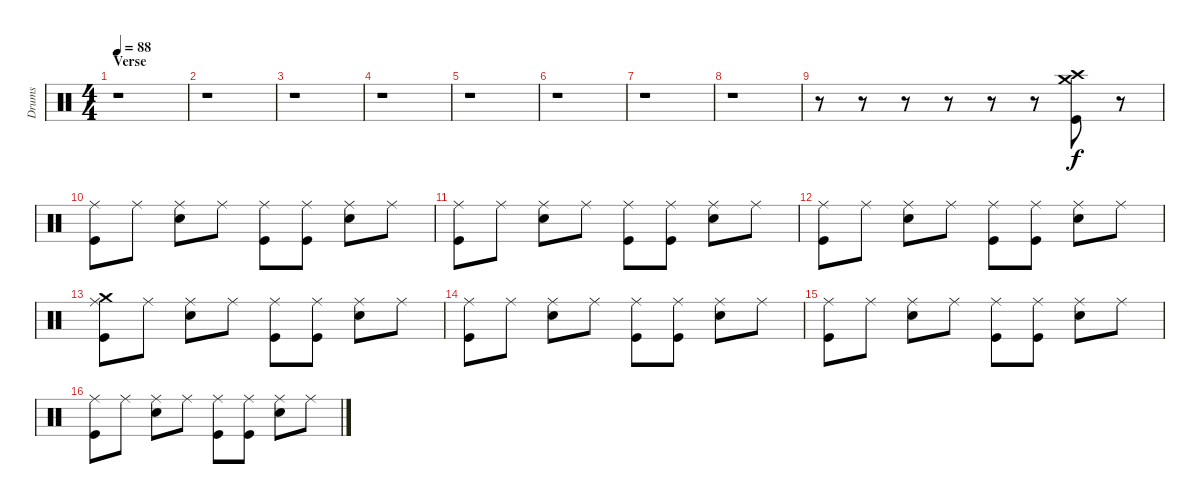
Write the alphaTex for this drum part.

\track ("Drums" "Drums") {instrument percussion}
\staff {score}
\articulation defaults
\ts (4 4)
\section ("" "Verse")
\tempo 88
\clef neutral
\ks c
r.1{dy f} |
r.1 |
r.1 |
r.1 |
r.1 |
r.1 |
r.1 |
r.1 |
r.8 r.8 r.8 r.8 r.8 r.8 ("Crash high (hit)" "Crash medium (hit)" "Kick (hit)").8 r.8 |
("Ride (middle)" "Kick (hit)").8 "Ride (middle)".8 ("Ride (middle)" "Electric Snare (hit)").8 "Ride (middle)".8 ("Ride (middle)" "Kick (hit)").8 ("Ride (middle)" "Kick (hit)").8 ("Ride (middle)" "Electric Snare (hit)").8 "Ride (middle)".8 |
("Ride (middle)" "Kick (hit)").8 "Ride (middle)".8 ("Ride (middle)" "Electric Snare (hit)").8 "Ride (middle)".8 ("Ride (middle)" "Kick (hit)").8 ("Ride (middle)" "Kick (hit)").8 ("Ride (middle)" "Electric Snare (hit)").8 "Ride (middle)".8 |
("Ride (middle)" "Kick (hit)").8 "Ride (middle)".8 ("Ride (middle)" "Electric Snare (hit)").8 "Ride (middle)".8 ("Ride (middle)" "Kick (hit)").8 ("Ride (middle)" "Kick (hit)").8 ("Ride (middle)" "Electric Snare (hit)").8 "Ride (middle)".8 |
("Crash medium (hit)" "Ride (middle)" "Kick (hit)").8 "Ride (middle)".8 ("Ride (middle)" "Electric Snare (hit)").8 "Ride (middle)".8 ("Ride (middle)" "Kick (hit)").8 ("Ride (middle)" "Kick (hit)").8 ("Ride (middle)" "Electric Snare (hit)").8 "Ride (middle)".8 |
("Ride (middle)" "Kick (hit)").8 "Ride (middle)".8 ("Ride (middle)" "Electric Snare (hit)").8 "Ride (middle)".8 ("Ride (middle)" "Kick (hit)").8 ("Ride (middle)" "Kick (hit)").8 ("Ride (middle)" "Electric Snare (hit)").8 "Ride (middle)".8 |
("Ride (middle)" "Kick (hit)").8 "Ride (middle)".8 ("Ride (middle)" "Electric Snare (hit)").8 "Ride (middle)".8 ("Ride (middle)" "Kick (hit)").8 ("Ride (middle)" "Kick (hit)").8 ("Ride (middle)" "Electric Snare (hit)").8 "Ride (middle)".8 |
("Ride (middle)" "Kick (hit)").8 "Ride (middle)".8 ("Ride (middle)" "Electric Snare (hit)").8 "Ride (middle)".8 ("Ride (middle)" "Kick (hit)").8 ("Ride (middle)" "Kick (hit)").8 ("Ride (middle)" "Electric Snare (hit)").8 "Ride (middle)".8
